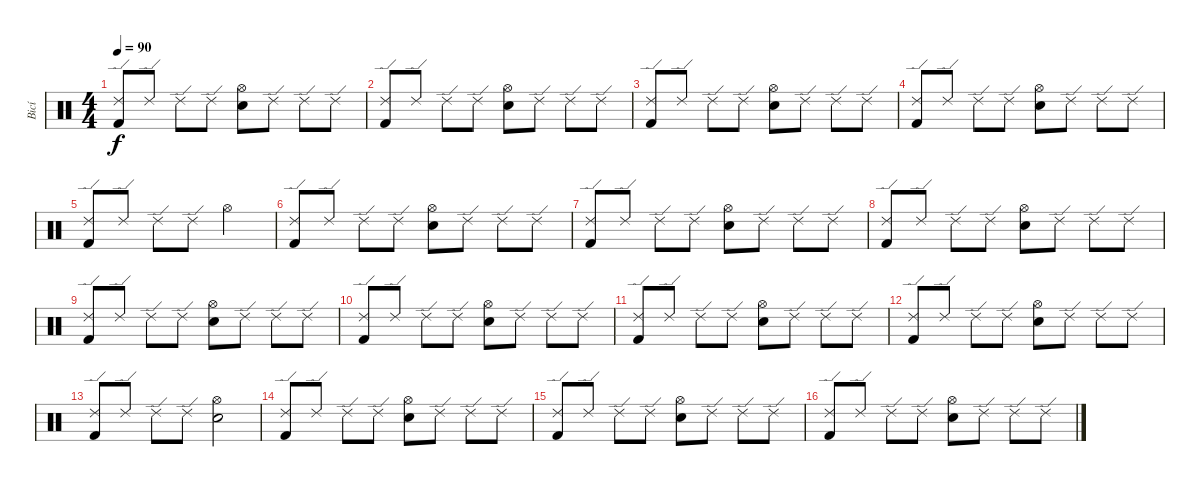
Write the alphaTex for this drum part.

\track ("Bicí" "Bicí") {instrument percussion}
\staff {score}
\articulation defaults
\ts (4 4)
\tempo 90
\clef neutral
\ks c
("Ride (edge) 2" "Kick (hit) 2").8{dy f} "Ride (edge) 2".8 "Ride (edge) 2".8 "Ride (edge) 2".8 ("Hi-Hat (open)" "Electric Snare (hit)").8 "Ride (edge) 2".8 "Ride (edge) 2".8 "Ride (edge) 2".8 |
("Ride (edge) 2" "Kick (hit) 2").8 "Ride (edge) 2".8 "Ride (edge) 2".8 "Ride (edge) 2".8 ("Hi-Hat (open)" "Electric Snare (hit)").8 "Ride (edge) 2".8 "Ride (edge) 2".8 "Ride (edge) 2".8 |
("Ride (edge) 2" "Kick (hit) 2").8 "Ride (edge) 2".8 "Ride (edge) 2".8 "Ride (edge) 2".8 ("Hi-Hat (open)" "Electric Snare (hit)").8 "Ride (edge) 2".8 "Ride (edge) 2".8 "Ride (edge) 2".8 |
("Ride (edge) 2" "Kick (hit) 2").8 "Ride (edge) 2".8 "Ride (edge) 2".8 "Ride (edge) 2".8 ("Hi-Hat (open)" "Electric Snare (hit)").8 "Ride (edge) 2".8 "Ride (edge) 2".8 "Ride (edge) 2".8 |
("Ride (edge) 2" "Kick (hit) 2").8 "Ride (edge) 2".8 "Ride (edge) 2".8 "Ride (edge) 2".8 "Hi-Hat (open)".2 |
("Ride (edge) 2" "Kick (hit) 2").8 "Ride (edge) 2".8 "Ride (edge) 2".8 "Ride (edge) 2".8 ("Hi-Hat (open)" "Electric Snare (hit)").8 "Ride (edge) 2".8 "Ride (edge) 2".8 "Ride (edge) 2".8 |
("Ride (edge) 2" "Kick (hit) 2").8 "Ride (edge) 2".8 "Ride (edge) 2".8 "Ride (edge) 2".8 ("Hi-Hat (open)" "Electric Snare (hit)").8 "Ride (edge) 2".8 "Ride (edge) 2".8 "Ride (edge) 2".8 |
("Ride (edge) 2" "Kick (hit) 2").8 "Ride (edge) 2".8 "Ride (edge) 2".8 "Ride (edge) 2".8 ("Hi-Hat (open)" "Electric Snare (hit)").8 "Ride (edge) 2".8 "Ride (edge) 2".8 "Ride (edge) 2".8 |
("Ride (edge) 2" "Kick (hit) 2").8 "Ride (edge) 2".8 "Ride (edge) 2".8 "Ride (edge) 2".8 ("Hi-Hat (open)" "Electric Snare (hit)").8 "Ride (edge) 2".8 "Ride (edge) 2".8 "Ride (edge) 2".8 |
("Ride (edge) 2" "Kick (hit) 2").8 "Ride (edge) 2".8 "Ride (edge) 2".8 "Ride (edge) 2".8 ("Hi-Hat (open)" "Electric Snare (hit)").8 "Ride (edge) 2".8 "Ride (edge) 2".8 "Ride (edge) 2".8 |
("Ride (edge) 2" "Kick (hit) 2").8 "Ride (edge) 2".8 "Ride (edge) 2".8 "Ride (edge) 2".8 ("Hi-Hat (open)" "Electric Snare (hit)").8 "Ride (edge) 2".8 "Ride (edge) 2".8 "Ride (edge) 2".8 |
("Ride (edge) 2" "Kick (hit) 2").8 "Ride (edge) 2".8 "Ride (edge) 2".8 "Ride (edge) 2".8 ("Hi-Hat (open)" "Electric Snare (hit)").8 "Ride (edge) 2".8 "Ride (edge) 2".8 "Ride (edge) 2".8 |
("Ride (edge) 2" "Kick (hit) 2").8 "Ride (edge) 2".8 "Ride (edge) 2".8 "Ride (edge) 2".8 ("Hi-Hat (open)" "Electric Snare (hit)").2 |
("Ride (edge) 2" "Kick (hit) 2").8 "Ride (edge) 2".8 "Ride (edge) 2".8 "Ride (edge) 2".8 ("Hi-Hat (open)" "Electric Snare (hit)").8 "Ride (edge) 2".8 "Ride (edge) 2".8 "Ride (edge) 2".8 |
("Ride (edge) 2" "Kick (hit) 2").8 "Ride (edge) 2".8 "Ride (edge) 2".8 "Ride (edge) 2".8 ("Hi-Hat (open)" "Electric Snare (hit)").8 "Ride (edge) 2".8 "Ride (edge) 2".8 "Ride (edge) 2".8 |
("Ride (edge) 2" "Kick (hit) 2").8 "Ride (edge) 2".8 "Ride (edge) 2".8 "Ride (edge) 2".8 ("Hi-Hat (open)" "Electric Snare (hit)").8 "Ride (edge) 2".8 "Ride (edge) 2".8 "Ride (edge) 2".8
